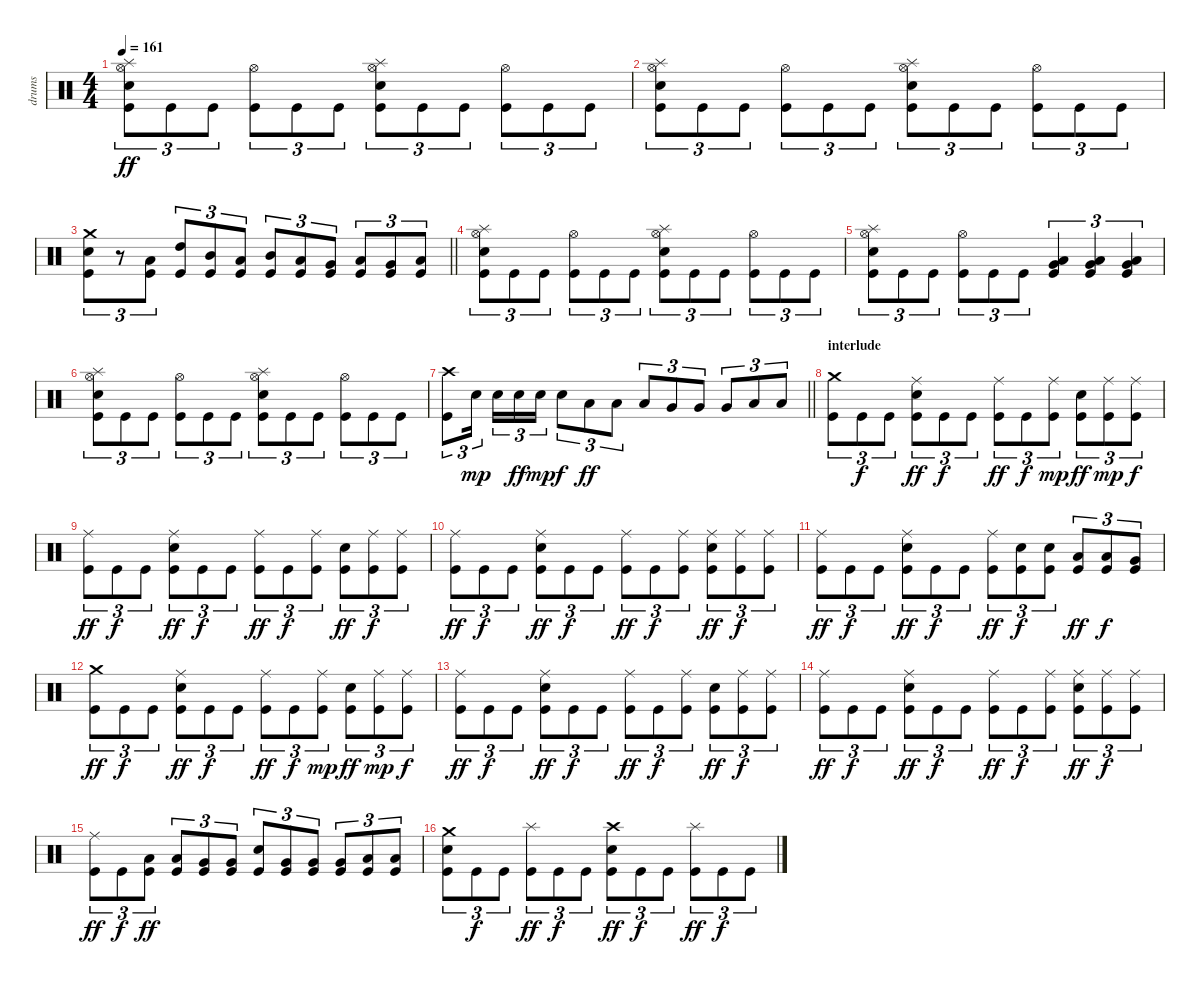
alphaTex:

\track ("drums" "drums") {instrument percussion}
\staff {score}
\articulation defaults
\ts (4 4)
\tempo 161
\clef neutral
\ks c
("Splash (hit)" "Hi-Hat (open)" "Electric Snare (hit)" "Kick (hit)").8{tu (3 2) dy ff} "Kick (hit)".8{tu (3 2)} "Kick (hit)".8{tu (3 2)} ("Hi-Hat (open)" "Kick (hit)").8{tu (3 2)} "Kick (hit)".8{tu (3 2)} "Kick (hit)".8{tu (3 2)} ("Splash (hit)" "Hi-Hat (open)" "Electric Snare (hit)" "Kick (hit)").8{tu (3 2)} "Kick (hit)".8{tu (3 2)} "Kick (hit)".8{tu (3 2)} ("Hi-Hat (open)" "Kick (hit)").8{tu (3 2)} "Kick (hit)".8{tu (3 2)} "Kick (hit)".8{tu (3 2)} |
("Splash (hit)" "Hi-Hat (open)" "Electric Snare (hit)" "Kick (hit)").8{tu (3 2)} "Kick (hit)".8{tu (3 2)} "Kick (hit)".8{tu (3 2)} ("Hi-Hat (open)" "Kick (hit)").8{tu (3 2)} "Kick (hit)".8{tu (3 2)} "Kick (hit)".8{tu (3 2)} ("Splash (hit)" "Hi-Hat (open)" "Electric Snare (hit)" "Kick (hit)").8{tu (3 2)} "Kick (hit)".8{tu (3 2)} "Kick (hit)".8{tu (3 2)} ("Hi-Hat (open)" "Kick (hit)").8{tu (3 2)} "Kick (hit)".8{tu (3 2)} "Kick (hit)".8{tu (3 2)} |
\barLineRight lightlight
("Crash medium (hit)" "Electric Snare (hit)" "Kick (hit)").8{tu (3 2)} r.8{tu (3 2)} ("Low Tom (hit)" "Kick (hit)").8{tu (3 2)} ("High Tom (hit)" "Kick (hit)").8{tu (3 2)} ("Mid Tom (hit)" "Kick (hit)").8{tu (3 2)} ("Low Tom (hit)" "Kick (hit)").8{tu (3 2)} ("Mid Tom (hit)" "Kick (hit)").8{tu (3 2)} ("Low Tom (hit)" "Kick (hit)").8{tu (3 2)} ("Very Low Tom (hit)" "Kick (hit)").8{tu (3 2)} ("Low Tom (hit)" "Kick (hit)").8{tu (3 2)} ("Very Low Tom (hit)" "Kick (hit)").8{tu (3 2)} ("Low Floor Tom (hit)" "Kick (hit)").8{tu (3 2)} |
("Splash (hit)" "Hi-Hat (open)" "Electric Snare (hit)" "Kick (hit)").8{tu (3 2)} "Kick (hit)".8{tu (3 2)} "Kick (hit)".8{tu (3 2)} ("Hi-Hat (open)" "Kick (hit)").8{tu (3 2)} "Kick (hit)".8{tu (3 2)} "Kick (hit)".8{tu (3 2)} ("Splash (hit)" "Hi-Hat (open)" "Electric Snare (hit)" "Kick (hit)").8{tu (3 2)} "Kick (hit)".8{tu (3 2)} "Kick (hit)".8{tu (3 2)} ("Hi-Hat (open)" "Kick (hit)").8{tu (3 2)} "Kick (hit)".8{tu (3 2)} "Kick (hit)".8{tu (3 2)} |
("Splash (hit)" "Hi-Hat (open)" "Electric Snare (hit)" "Kick (hit)").8{tu (3 2)} "Kick (hit)".8{tu (3 2)} "Kick (hit)".8{tu (3 2)} ("Hi-Hat (open)" "Kick (hit)").8{tu (3 2)} "Kick (hit)".8{tu (3 2)} "Kick (hit)".8{tu (3 2)} ("Very Low Tom (hit)" "Low Floor Tom (hit)" "Kick (hit)").4{tu (3 2)} ("Very Low Tom (hit)" "Low Floor Tom (hit)" "Kick (hit)").4{tu (3 2)} ("Very Low Tom (hit)" "Low Floor Tom (hit)" "Kick (hit)").4{tu (3 2)} |
("Splash (hit)" "Hi-Hat (open)" "Electric Snare (hit)" "Kick (hit)").8{tu (3 2)} "Kick (hit)".8{tu (3 2)} "Kick (hit)".8{tu (3 2)} ("Hi-Hat (open)" "Kick (hit)").8{tu (3 2)} "Kick (hit)".8{tu (3 2)} "Kick (hit)".8{tu (3 2)} ("Splash (hit)" "Hi-Hat (open)" "Electric Snare (hit)" "Kick (hit)").8{tu (3 2)} "Kick (hit)".8{tu (3 2)} "Kick (hit)".8{tu (3 2)} ("Hi-Hat (open)" "Kick (hit)").8{tu (3 2)} "Kick (hit)".8{tu (3 2)} "Kick (hit)".8{tu (3 2)} |
\barLineRight lightlight
("Crash high (hit)" "Kick (hit)").8{tu (3 2)} "Electric Snare (hit)".16{tu (3 2) dy mp beam splitsecondary} "Electric Snare (hit)".16{tu (3 2)} "Electric Snare (hit)".16{tu (3 2) dy ff} "Electric Snare (hit)".16{tu (3 2) dy mp} "Electric Snare (hit)".8{tu (3 2) dy f} "Low Tom (hit)".8{tu (3 2) dy ff} "Low Tom (hit)".8{tu (3 2)} "Low Tom (hit)".8{tu (3 2)} "Very Low Tom (hit)".8{tu (3 2)} "Very Low Tom (hit)".8{tu (3 2)} "Very Low Tom (hit)".8{tu (3 2)} "Low Floor Tom (hit)".8{tu (3 2)} "Low Floor Tom (hit)".8{tu (3 2)} |
\section ("" "interlude")
("Crash medium (hit)" "Kick (hit)").8{tu (3 2)} "Kick (hit)".8{tu (3 2) dy f} "Kick (hit)".8{tu (3 2)} ("Ride (middle)" "Electric Snare (hit)" "Kick (hit)").8{tu (3 2) dy ff} "Kick (hit)".8{tu (3 2) dy f} "Kick (hit)".8{tu (3 2)} ("Ride (middle)" "Kick (hit)").8{tu (3 2) dy ff} "Kick (hit)".8{tu (3 2) dy f} ("Ride (middle)" "Kick (hit)").8{tu (3 2) dy mp} ("Electric Snare (hit)" "Kick (hit)").8{tu (3 2) dy ff} ("Ride (middle)" "Kick (hit)").8{tu (3 2) dy mp} ("Ride (middle)" "Kick (hit)").8{tu (3 2) dy f} |
("Ride (middle)" "Kick (hit)").8{tu (3 2) dy ff} "Kick (hit)".8{tu (3 2) dy f} "Kick (hit)".8{tu (3 2)} ("Ride (middle)" "Electric Snare (hit)" "Kick (hit)").8{tu (3 2) dy ff} "Kick (hit)".8{tu (3 2) dy f} "Kick (hit)".8{tu (3 2)} ("Ride (middle)" "Kick (hit)").8{tu (3 2) dy ff} "Kick (hit)".8{tu (3 2) dy f} ("Ride (middle)" "Kick (hit)").8{tu (3 2)} ("Electric Snare (hit)" "Kick (hit)").8{tu (3 2) dy ff} ("Ride (middle)" "Kick (hit)").8{tu (3 2) dy f} ("Ride (middle)" "Kick (hit)").8{tu (3 2)} |
("Ride (middle)" "Kick (hit)").8{tu (3 2) dy ff} "Kick (hit)".8{tu (3 2) dy f} "Kick (hit)".8{tu (3 2)} ("Ride (middle)" "Electric Snare (hit)" "Kick (hit)").8{tu (3 2) dy ff} "Kick (hit)".8{tu (3 2) dy f} "Kick (hit)".8{tu (3 2)} ("Ride (middle)" "Kick (hit)").8{tu (3 2) dy ff} "Kick (hit)".8{tu (3 2) dy f} ("Ride (middle)" "Kick (hit)").8{tu (3 2)} ("Ride (middle)" "Electric Snare (hit)" "Kick (hit)").8{tu (3 2) dy ff} ("Ride (middle)" "Kick (hit)").8{tu (3 2) dy f} ("Ride (middle)" "Kick (hit)").8{tu (3 2)} |
("Ride (middle)" "Kick (hit)").8{tu (3 2) dy ff} "Kick (hit)".8{tu (3 2) dy f} "Kick (hit)".8{tu (3 2)} ("Ride (middle)" "Electric Snare (hit)" "Kick (hit)").8{tu (3 2) dy ff} "Kick (hit)".8{tu (3 2) dy f} "Kick (hit)".8{tu (3 2)} ("Ride (middle)" "Kick (hit)").8{tu (3 2) dy ff} ("Electric Snare (hit)" "Kick (hit)").8{tu (3 2) dy f} ("Electric Snare (hit)" "Kick (hit)").8{tu (3 2)} ("Low Tom (hit)" "Kick (hit)").8{tu (3 2) dy ff} ("Low Tom (hit)" "Kick (hit)").8{tu (3 2) dy f} ("Very Low Tom (hit)" "Kick (hit)").8{tu (3 2)} |
("Crash medium (hit)" "Kick (hit)").8{tu (3 2) dy ff} "Kick (hit)".8{tu (3 2) dy f} "Kick (hit)".8{tu (3 2)} ("Ride (middle)" "Electric Snare (hit)" "Kick (hit)").8{tu (3 2) dy ff} "Kick (hit)".8{tu (3 2) dy f} "Kick (hit)".8{tu (3 2)} ("Ride (middle)" "Kick (hit)").8{tu (3 2) dy ff} "Kick (hit)".8{tu (3 2) dy f} ("Ride (middle)" "Kick (hit)").8{tu (3 2) dy mp} ("Electric Snare (hit)" "Kick (hit)").8{tu (3 2) dy ff} ("Ride (middle)" "Kick (hit)").8{tu (3 2) dy mp} ("Ride (middle)" "Kick (hit)").8{tu (3 2) dy f} |
("Ride (middle)" "Kick (hit)").8{tu (3 2) dy ff} "Kick (hit)".8{tu (3 2) dy f} "Kick (hit)".8{tu (3 2)} ("Ride (middle)" "Electric Snare (hit)" "Kick (hit)").8{tu (3 2) dy ff} "Kick (hit)".8{tu (3 2) dy f} "Kick (hit)".8{tu (3 2)} ("Ride (middle)" "Kick (hit)").8{tu (3 2) dy ff} "Kick (hit)".8{tu (3 2) dy f} ("Ride (middle)" "Kick (hit)").8{tu (3 2)} ("Electric Snare (hit)" "Kick (hit)").8{tu (3 2) dy ff} ("Ride (middle)" "Kick (hit)").8{tu (3 2) dy f} ("Ride (middle)" "Kick (hit)").8{tu (3 2)} |
("Ride (middle)" "Kick (hit)").8{tu (3 2) dy ff} "Kick (hit)".8{tu (3 2) dy f} "Kick (hit)".8{tu (3 2)} ("Ride (middle)" "Electric Snare (hit)" "Kick (hit)").8{tu (3 2) dy ff} "Kick (hit)".8{tu (3 2) dy f} "Kick (hit)".8{tu (3 2)} ("Ride (middle)" "Kick (hit)").8{tu (3 2) dy ff} "Kick (hit)".8{tu (3 2) dy f} ("Ride (middle)" "Kick (hit)").8{tu (3 2)} ("Ride (middle)" "Electric Snare (hit)" "Kick (hit)").8{tu (3 2) dy ff} ("Ride (middle)" "Kick (hit)").8{tu (3 2) dy f} ("Ride (middle)" "Kick (hit)").8{tu (3 2)} |
("Ride (middle)" "Kick (hit)").8{tu (3 2) dy ff} "Kick (hit)".8{tu (3 2) dy f} ("Low Tom (hit)" "Kick (hit)").8{tu (3 2) dy ff} ("Low Tom (hit)" "Kick (hit)").8{tu (3 2)} ("Very Low Tom (hit)" "Kick (hit)").8{tu (3 2)} ("Very Low Tom (hit)" "Kick (hit)").8{tu (3 2)} ("Electric Snare (hit)" "Kick (hit)").8{tu (3 2)} ("Very Low Tom (hit)" "Kick (hit)").8{tu (3 2)} ("Very Low Tom (hit)" "Kick (hit)").8{tu (3 2)} ("Very Low Tom (hit)" "Kick (hit)").8{tu (3 2)} ("Low Floor Tom (hit)" "Kick (hit)").8{tu (3 2)} ("Low Floor Tom (hit)" "Kick (hit)").8{tu (3 2)} |
("Crash medium (hit)" "Electric Snare (hit)" "Kick (hit)").8{tu (3 2)} "Kick (hit)".8{tu (3 2) dy f} "Kick (hit)".8{tu (3 2)} ("Splash (hit)" "Kick (hit)").8{tu (3 2) dy ff} "Kick (hit)".8{tu (3 2) dy f} "Kick (hit)".8{tu (3 2)} ("Crash high (hit)" "Electric Snare (hit)" "Kick (hit)").8{tu (3 2) dy ff} "Kick (hit)".8{tu (3 2) dy f} "Kick (hit)".8{tu (3 2)} ("Splash (hit)" "Kick (hit)").8{tu (3 2) dy ff} "Kick (hit)".8{tu (3 2) dy f} "Kick (hit)".8{tu (3 2)}
